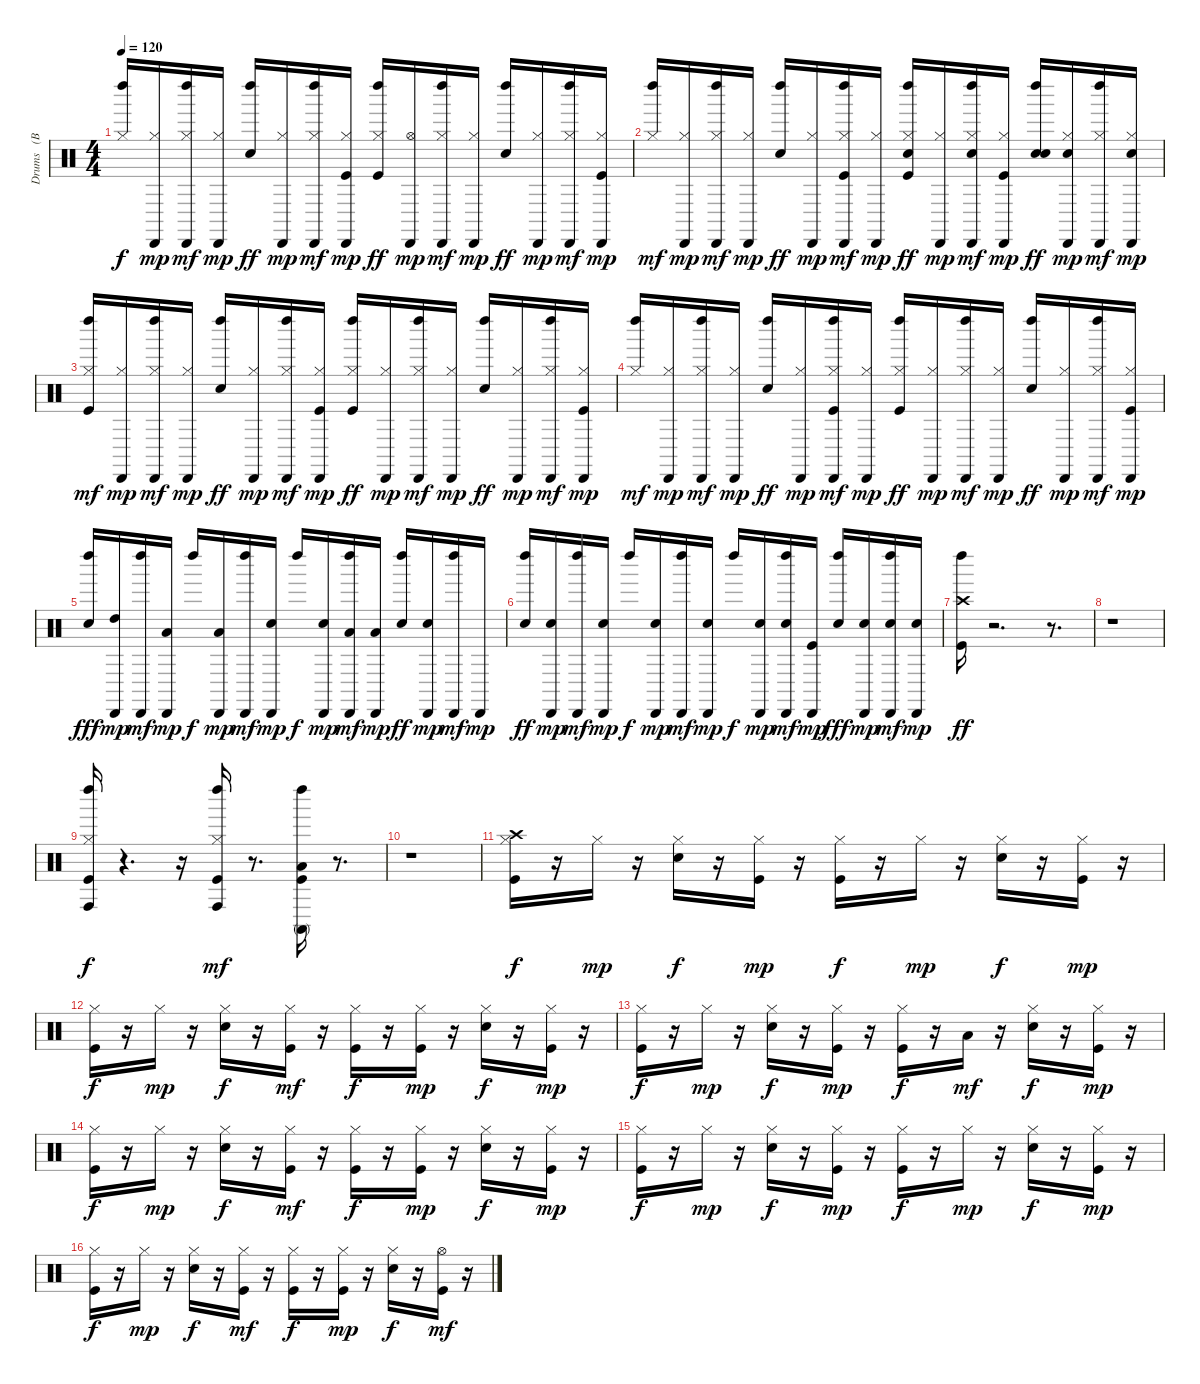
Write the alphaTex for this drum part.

\track ("Drums   (BB)" "Drums   (B") {instrument percussion}
\staff {score}
\articulation defaults
\ts (4 4)
\tempo 120
\clef neutral
\ks c
("Hi-Hat (closed)" "Left Maraca (hit)").16{dy f} ("Hi-Hat (closed)" "Cabasa (hit)").16{dy mp} ("Hi-Hat (closed)" "Left Maraca (hit)" "Cabasa (hit)").16{dy mf} ("Hi-Hat (closed)" "Cabasa (hit)").16{dy mp} ("Snare (hit) 2" "Left Maraca (hit)").16{dy ff} ("Hi-Hat (closed)" "Cabasa (hit)").16{dy mp} ("Hi-Hat (closed)" "Left Maraca (hit)" "Cabasa (hit)").16{dy mf} ("Kick (hit)" "Hi-Hat (closed)" "Cabasa (hit)").16{dy mp} ("Kick (hit)" "Hi-Hat (closed)" "Left Maraca (hit)").16{dy ff} ("Hi-Hat (open)" "Cabasa (hit)").16{dy mp} ("Hi-Hat (closed)" "Left Maraca (hit)" "Cabasa (hit)").16{dy mf} ("Hi-Hat (closed)" "Cabasa (hit)").16{dy mp} ("Snare (hit) 2" "Left Maraca (hit)").16{dy ff} ("Hi-Hat (closed)" "Cabasa (hit)").16{dy mp} ("Hi-Hat (closed)" "Left Maraca (hit)" "Cabasa (hit)").16{dy mf} ("Kick (hit)" "Hi-Hat (closed)" "Cabasa (hit)").16{dy mp} |
("Hi-Hat (closed)" "Left Maraca (hit)").16{dy mf} ("Hi-Hat (closed)" "Cabasa (hit)").16{dy mp} ("Hi-Hat (closed)" "Left Maraca (hit)" "Cabasa (hit)").16{dy mf} ("Hi-Hat (closed)" "Cabasa (hit)").16{dy mp} ("Snare (hit) 2" "Left Maraca (hit)").16{dy ff} ("Hi-Hat (closed)" "Cabasa (hit)").16{dy mp} ("Kick (hit)" "Hi-Hat (closed)" "Left Maraca (hit)" "Cabasa (hit)").16{dy mf} ("Hi-Hat (closed)" "Cabasa (hit)").16{dy mp} ("Kick (hit)" "Hi-Hat (closed)" "Hand Clap (hit)" "Left Maraca (hit)").16{dy ff} ("Hi-Hat (closed)" "Cabasa (hit)").16{dy mp} ("Hi-Hat (closed)" "Hand Clap (hit)" "Left Maraca (hit)" "Cabasa (hit)").16{dy mf} ("Kick (hit)" "Hi-Hat (closed)" "Cabasa (hit)").16{dy mp} ("Snare (hit) 2" "Hand Clap (hit)" "Left Maraca (hit)").16{dy ff} ("Hi-Hat (closed)" "Hand Clap (hit)" "Cabasa (hit)").16{dy mp} ("Hi-Hat (closed)" "Left Maraca (hit)" "Cabasa (hit)").16{dy mf} ("Hi-Hat (closed)" "Hand Clap (hit)" "Cabasa (hit)").16{dy mp} |
("Kick (hit)" "Hi-Hat (closed)" "Left Maraca (hit)").16{dy mf} ("Hi-Hat (closed)" "Cabasa (hit)").16{dy mp} ("Hi-Hat (closed)" "Left Maraca (hit)" "Cabasa (hit)").16{dy mf} ("Hi-Hat (closed)" "Cabasa (hit)").16{dy mp} ("Snare (hit) 2" "Left Maraca (hit)").16{dy ff} ("Hi-Hat (closed)" "Cabasa (hit)").16{dy mp} ("Hi-Hat (closed)" "Left Maraca (hit)" "Cabasa (hit)").16{dy mf} ("Kick (hit)" "Hi-Hat (closed)" "Cabasa (hit)").16{dy mp} ("Kick (hit)" "Hi-Hat (closed)" "Left Maraca (hit)").16{dy ff} ("Hi-Hat (closed)" "Cabasa (hit)").16{dy mp} ("Hi-Hat (closed)" "Left Maraca (hit)" "Cabasa (hit)").16{dy mf} ("Hi-Hat (closed)" "Cabasa (hit)").16{dy mp} ("Snare (hit) 2" "Left Maraca (hit)").16{dy ff} ("Hi-Hat (closed)" "Cabasa (hit)").16{dy mp} ("Hi-Hat (closed)" "Left Maraca (hit)" "Cabasa (hit)").16{dy mf} ("Kick (hit)" "Hi-Hat (closed)" "Cabasa (hit)").16{dy mp} |
("Hi-Hat (closed)" "Left Maraca (hit)").16{dy mf} ("Hi-Hat (closed)" "Cabasa (hit)").16{dy mp} ("Hi-Hat (closed)" "Left Maraca (hit)" "Cabasa (hit)").16{dy mf} ("Hi-Hat (closed)" "Cabasa (hit)").16{dy mp} ("Snare (hit) 2" "Left Maraca (hit)").16{dy ff} ("Hi-Hat (closed)" "Cabasa (hit)").16{dy mp} ("Kick (hit)" "Hi-Hat (closed)" "Left Maraca (hit)" "Cabasa (hit)").16{dy mf} ("Hi-Hat (closed)" "Cabasa (hit)").16{dy mp} ("Kick (hit)" "Hi-Hat (closed)" "Left Maraca (hit)").16{dy ff} ("Hi-Hat (closed)" "Cabasa (hit)").16{dy mp} ("Hi-Hat (closed)" "Left Maraca (hit)" "Cabasa (hit)").16{dy mf} ("Hi-Hat (closed)" "Cabasa (hit)").16{dy mp} ("Snare (hit) 2" "Left Maraca (hit)").16{dy ff} ("Hi-Hat (closed)" "Cabasa (hit)").16{dy mp} ("Hi-Hat (closed)" "Left Maraca (hit)" "Cabasa (hit)").16{dy mf} ("Kick (hit)" "Hi-Hat (closed)" "Cabasa (hit)").16{dy mp} |
("Snare (hit) 2" "Left Maraca (hit)").16{dy fff} ("High Tom (hit)" "Cabasa (hit)").16{dy mp} ("Left Maraca (hit)" "Cabasa (hit)").16{dy mf} ("Low Tom (hit)" "Cabasa (hit)").16{dy mp} "Left Maraca (hit)".16{dy f} ("Low Floor Tom (hit)" "Cabasa (hit)").16{dy mp} ("Left Maraca (hit)" "Cabasa (hit)").16{dy mf} ("Snare (hit) 2" "Cabasa (hit)").16{dy mp} "Left Maraca (hit)".16{dy f} ("Snare (hit) 2" "Cabasa (hit)").16{dy mp} ("Low Floor Tom (hit)" "Left Maraca (hit)" "Cabasa (hit)").16{dy mf} ("Low Floor Tom (hit)" "Cabasa (hit)").16{dy mp} ("Snare (hit) 2" "Left Maraca (hit)").16{dy ff} ("Snare (hit) 2" "Cabasa (hit)").16{dy mp} ("Left Maraca (hit)" "Cabasa (hit)").16{dy mf} "Cabasa (hit)".16{dy mp} |
("Snare (hit) 2" "Left Maraca (hit)").16{dy ff} ("Snare (hit) 2" "Cabasa (hit)").16{dy mp} ("Left Maraca (hit)" "Cabasa (hit)").16{dy mf} ("Snare (hit) 2" "Cabasa (hit)").16{dy mp} "Left Maraca (hit)".16{dy f} ("Snare (hit) 2" "Cabasa (hit)").16{dy mp} ("Left Maraca (hit)" "Cabasa (hit)").16{dy mf} ("Snare (hit) 2" "Cabasa (hit)").16{dy mp} "Left Maraca (hit)".16{dy f} ("Snare (hit) 2" "Cabasa (hit)").16{dy mp} ("Snare (hit) 2" "Left Maraca (hit)" "Cabasa (hit)").16{dy mf} ("Kick (hit)" "Cabasa (hit)").16{dy mp} ("Snare (hit) 2" "Left Maraca (hit)").16{dy fff} ("Snare (hit) 2" "Cabasa (hit)").16{dy mp} ("Snare (hit) 2" "Left Maraca (hit)" "Cabasa (hit)").16{dy mf} ("Snare (hit) 2" "Cabasa (hit)").16{dy mp} |
("Kick (hit)" "Crash high (hit)" "Left Maraca (hit)").16{dy ff} r.2{d} r.8{d} |
r.1 |
("Kick (hit)" "Hi-Hat (closed)" "Conga high (hit)" "Left Maraca (hit)").16{dy f} r.4{d} r.16 ("Kick (hit)" "Hi-Hat (closed)" "Conga high (hit)" "Left Maraca (hit)").16{dy mf} r.8{d} ("Kick (hit)" "Low Floor Tom (hit)" "Conga high (mute)" "Left Maraca (hit)").16 r.8{d} |
r.1 |
("Kick (hit)" "Hi-Hat (closed)" "Crash high (hit)").16{dy f} r.16 "Hi-Hat (closed)".16{dy mp} r.16 ("Snare (hit) 2" "Hi-Hat (closed)").16{dy f} r.16 ("Kick (hit)" "Hi-Hat (closed)").16{dy mp} r.16 ("Kick (hit)" "Hi-Hat (closed)").16{dy f} r.16 "Hi-Hat (closed)".16{dy mp} r.16 ("Snare (hit) 2" "Hi-Hat (closed)").16{dy f} r.16 ("Kick (hit)" "Hi-Hat (closed)").16{dy mp} r.16 |
("Kick (hit)" "Hi-Hat (closed)").16{dy f} r.16 "Hi-Hat (closed)".16{dy mp} r.16 ("Snare (hit) 2" "Hi-Hat (closed)").16{dy f} r.16 ("Kick (hit)" "Hi-Hat (closed)").16{dy mf} r.16 ("Kick (hit)" "Hi-Hat (closed)").16{dy f} r.16 ("Kick (hit)" "Hi-Hat (closed)").16{dy mp} r.16 ("Snare (hit) 2" "Hi-Hat (closed)").16{dy f} r.16 ("Kick (hit)" "Hi-Hat (closed)").16{dy mp} r.16 |
("Kick (hit)" "Hi-Hat (closed)").16{dy f} r.16 "Hi-Hat (closed)".16{dy mp} r.16 ("Snare (hit) 2" "Hi-Hat (closed)").16{dy f} r.16 ("Kick (hit)" "Hi-Hat (closed)").16{dy mp} r.16 ("Kick (hit)" "Hi-Hat (closed)").16{dy f} r.16 "Low Floor Tom (hit)".16{dy mf} r.16 ("Snare (hit) 2" "Hi-Hat (closed)").16{dy f} r.16 ("Kick (hit)" "Hi-Hat (closed)").16{dy mp} r.16 |
("Kick (hit)" "Hi-Hat (closed)").16{dy f} r.16 "Hi-Hat (closed)".16{dy mp} r.16 ("Snare (hit) 2" "Hi-Hat (closed)").16{dy f} r.16 ("Kick (hit)" "Hi-Hat (closed)").16{dy mf} r.16 ("Kick (hit)" "Hi-Hat (closed)").16{dy f} r.16 ("Kick (hit)" "Hi-Hat (closed)").16{dy mp} r.16 ("Snare (hit) 2" "Hi-Hat (closed)").16{dy f} r.16 ("Kick (hit)" "Hi-Hat (closed)").16{dy mp} r.16 |
("Kick (hit)" "Hi-Hat (closed)").16{dy f} r.16 "Hi-Hat (closed)".16{dy mp} r.16 ("Snare (hit) 2" "Hi-Hat (closed)").16{dy f} r.16 ("Kick (hit)" "Hi-Hat (closed)").16{dy mp} r.16 ("Kick (hit)" "Hi-Hat (closed)").16{dy f} r.16 "Hi-Hat (closed)".16{dy mp} r.16 ("Snare (hit) 2" "Hi-Hat (closed)").16{dy f} r.16 ("Kick (hit)" "Hi-Hat (closed)").16{dy mp} r.16 |
("Kick (hit)" "Hi-Hat (closed)").16{dy f} r.16 "Hi-Hat (closed)".16{dy mp} r.16 ("Snare (hit) 2" "Hi-Hat (closed)").16{dy f} r.16 ("Kick (hit)" "Hi-Hat (closed)").16{dy mf} r.16 ("Kick (hit)" "Hi-Hat (closed)").16{dy f} r.16 ("Kick (hit)" "Hi-Hat (closed)").16{dy mp} r.16 ("Snare (hit) 2" "Hi-Hat (closed)").16{dy f} r.16 ("Kick (hit)" "Hi-Hat (open)").16{dy mf} r.16
